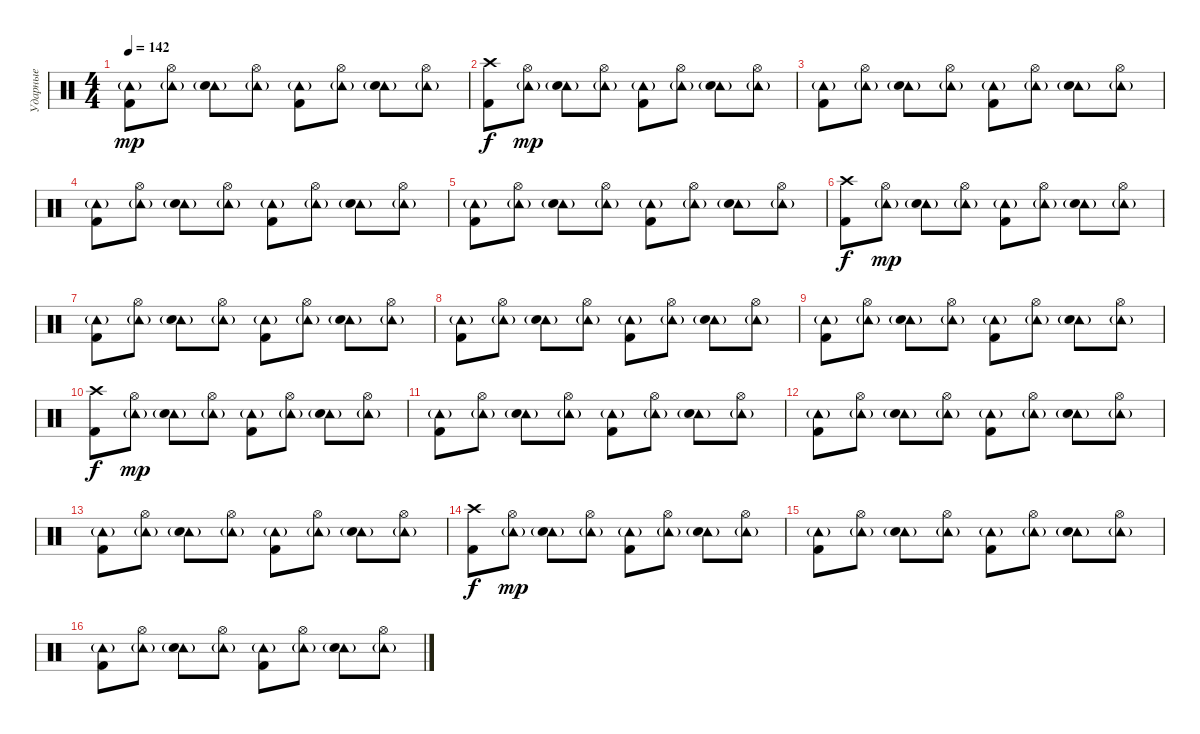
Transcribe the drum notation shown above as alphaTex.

\track ("Ударные" "Ударные") {instrument percussion}
\staff {score}
\articulation defaults
\ts (4 4)
\tempo 142
\clef neutral
\ks c
("Tambourine (hit)"{g} "Kick (hit) 2").8{dy mp} ("Tambourine (hit)"{g} "Hi-Hat (open)").8 ("Tambourine (hit)"{g} "Electric Snare (hit)").8 ("Tambourine (hit)"{g} "Hi-Hat (open)").8 ("Tambourine (hit)"{g} "Kick (hit) 2").8 ("Tambourine (hit)"{g} "Hi-Hat (open)").8 ("Tambourine (hit)"{g} "Electric Snare (hit)").8 ("Tambourine (hit)"{g} "Hi-Hat (open)").8 |
("Crash high (hit)" "Kick (hit) 2").8{dy f} ("Tambourine (hit)"{g} "Hi-Hat (open)").8{dy mp} ("Tambourine (hit)"{g} "Electric Snare (hit)").8 ("Tambourine (hit)"{g} "Hi-Hat (open)").8 ("Tambourine (hit)"{g} "Kick (hit) 2").8 ("Tambourine (hit)"{g} "Hi-Hat (open)").8 ("Tambourine (hit)"{g} "Electric Snare (hit)").8 ("Tambourine (hit)"{g} "Hi-Hat (open)").8 |
("Tambourine (hit)"{g} "Kick (hit) 2").8 ("Tambourine (hit)"{g} "Hi-Hat (open)").8 ("Tambourine (hit)"{g} "Electric Snare (hit)").8 ("Tambourine (hit)"{g} "Hi-Hat (open)").8 ("Tambourine (hit)"{g} "Kick (hit) 2").8 ("Tambourine (hit)"{g} "Hi-Hat (open)").8 ("Tambourine (hit)"{g} "Electric Snare (hit)").8 ("Tambourine (hit)"{g} "Hi-Hat (open)").8 |
("Tambourine (hit)"{g} "Kick (hit) 2").8 ("Tambourine (hit)"{g} "Hi-Hat (open)").8 ("Tambourine (hit)"{g} "Electric Snare (hit)").8 ("Tambourine (hit)"{g} "Hi-Hat (open)").8 ("Tambourine (hit)"{g} "Kick (hit) 2").8 ("Tambourine (hit)"{g} "Hi-Hat (open)").8 ("Tambourine (hit)"{g} "Electric Snare (hit)").8 ("Tambourine (hit)"{g} "Hi-Hat (open)").8 |
("Tambourine (hit)"{g} "Kick (hit) 2").8 ("Tambourine (hit)"{g} "Hi-Hat (open)").8 ("Tambourine (hit)"{g} "Electric Snare (hit)").8 ("Tambourine (hit)"{g} "Hi-Hat (open)").8 ("Tambourine (hit)"{g} "Kick (hit) 2").8 ("Tambourine (hit)"{g} "Hi-Hat (open)").8 ("Tambourine (hit)"{g} "Electric Snare (hit)").8 ("Tambourine (hit)"{g} "Hi-Hat (open)").8 |
("Crash high (hit)" "Kick (hit) 2").8{dy f} ("Tambourine (hit)"{g} "Hi-Hat (open)").8{dy mp} ("Tambourine (hit)"{g} "Electric Snare (hit)").8 ("Tambourine (hit)"{g} "Hi-Hat (open)").8 ("Tambourine (hit)"{g} "Kick (hit) 2").8 ("Tambourine (hit)"{g} "Hi-Hat (open)").8 ("Tambourine (hit)"{g} "Electric Snare (hit)").8 ("Tambourine (hit)"{g} "Hi-Hat (open)").8 |
("Tambourine (hit)"{g} "Kick (hit) 2").8 ("Tambourine (hit)"{g} "Hi-Hat (open)").8 ("Tambourine (hit)"{g} "Electric Snare (hit)").8 ("Tambourine (hit)"{g} "Hi-Hat (open)").8 ("Tambourine (hit)"{g} "Kick (hit) 2").8 ("Tambourine (hit)"{g} "Hi-Hat (open)").8 ("Tambourine (hit)"{g} "Electric Snare (hit)").8 ("Tambourine (hit)"{g} "Hi-Hat (open)").8 |
("Tambourine (hit)"{g} "Kick (hit) 2").8 ("Tambourine (hit)"{g} "Hi-Hat (open)").8 ("Tambourine (hit)"{g} "Electric Snare (hit)").8 ("Tambourine (hit)"{g} "Hi-Hat (open)").8 ("Tambourine (hit)"{g} "Kick (hit) 2").8 ("Tambourine (hit)"{g} "Hi-Hat (open)").8 ("Tambourine (hit)"{g} "Electric Snare (hit)").8 ("Tambourine (hit)"{g} "Hi-Hat (open)").8 |
("Tambourine (hit)"{g} "Kick (hit) 2").8 ("Tambourine (hit)"{g} "Hi-Hat (open)").8 ("Tambourine (hit)"{g} "Electric Snare (hit)").8 ("Tambourine (hit)"{g} "Hi-Hat (open)").8 ("Tambourine (hit)"{g} "Kick (hit) 2").8 ("Tambourine (hit)"{g} "Hi-Hat (open)").8 ("Tambourine (hit)"{g} "Electric Snare (hit)").8 ("Tambourine (hit)"{g} "Hi-Hat (open)").8 |
("Crash high (hit)" "Kick (hit) 2").8{dy f} ("Tambourine (hit)"{g} "Hi-Hat (open)").8{dy mp} ("Tambourine (hit)"{g} "Electric Snare (hit)").8 ("Tambourine (hit)"{g} "Hi-Hat (open)").8 ("Tambourine (hit)"{g} "Kick (hit) 2").8 ("Tambourine (hit)"{g} "Hi-Hat (open)").8 ("Tambourine (hit)"{g} "Electric Snare (hit)").8 ("Tambourine (hit)"{g} "Hi-Hat (open)").8 |
("Tambourine (hit)"{g} "Kick (hit) 2").8 ("Tambourine (hit)"{g} "Hi-Hat (open)").8 ("Tambourine (hit)"{g} "Electric Snare (hit)").8 ("Tambourine (hit)"{g} "Hi-Hat (open)").8 ("Tambourine (hit)"{g} "Kick (hit) 2").8 ("Tambourine (hit)"{g} "Hi-Hat (open)").8 ("Tambourine (hit)"{g} "Electric Snare (hit)").8 ("Tambourine (hit)"{g} "Hi-Hat (open)").8 |
("Tambourine (hit)"{g} "Kick (hit) 2").8 ("Tambourine (hit)"{g} "Hi-Hat (open)").8 ("Tambourine (hit)"{g} "Electric Snare (hit)").8 ("Tambourine (hit)"{g} "Hi-Hat (open)").8 ("Tambourine (hit)"{g} "Kick (hit) 2").8 ("Tambourine (hit)"{g} "Hi-Hat (open)").8 ("Tambourine (hit)"{g} "Electric Snare (hit)").8 ("Tambourine (hit)"{g} "Hi-Hat (open)").8 |
("Tambourine (hit)"{g} "Kick (hit) 2").8 ("Tambourine (hit)"{g} "Hi-Hat (open)").8 ("Tambourine (hit)"{g} "Electric Snare (hit)").8 ("Tambourine (hit)"{g} "Hi-Hat (open)").8 ("Tambourine (hit)"{g} "Kick (hit) 2").8 ("Tambourine (hit)"{g} "Hi-Hat (open)").8 ("Tambourine (hit)"{g} "Electric Snare (hit)").8 ("Tambourine (hit)"{g} "Hi-Hat (open)").8 |
("Crash high (hit)" "Kick (hit) 2").8{dy f} ("Tambourine (hit)"{g} "Hi-Hat (open)").8{dy mp} ("Tambourine (hit)"{g} "Electric Snare (hit)").8 ("Tambourine (hit)"{g} "Hi-Hat (open)").8 ("Tambourine (hit)"{g} "Kick (hit) 2").8 ("Tambourine (hit)"{g} "Hi-Hat (open)").8 ("Tambourine (hit)"{g} "Electric Snare (hit)").8 ("Tambourine (hit)"{g} "Hi-Hat (open)").8 |
("Tambourine (hit)"{g} "Kick (hit) 2").8 ("Tambourine (hit)"{g} "Hi-Hat (open)").8 ("Tambourine (hit)"{g} "Electric Snare (hit)").8 ("Tambourine (hit)"{g} "Hi-Hat (open)").8 ("Tambourine (hit)"{g} "Kick (hit) 2").8 ("Tambourine (hit)"{g} "Hi-Hat (open)").8 ("Tambourine (hit)"{g} "Electric Snare (hit)").8 ("Tambourine (hit)"{g} "Hi-Hat (open)").8 |
("Tambourine (hit)"{g} "Kick (hit) 2").8 ("Tambourine (hit)"{g} "Hi-Hat (open)").8 ("Tambourine (hit)"{g} "Electric Snare (hit)").8 ("Tambourine (hit)"{g} "Hi-Hat (open)").8 ("Tambourine (hit)"{g} "Kick (hit) 2").8 ("Tambourine (hit)"{g} "Hi-Hat (open)").8 ("Tambourine (hit)"{g} "Electric Snare (hit)").8 ("Tambourine (hit)"{g} "Hi-Hat (open)").8
